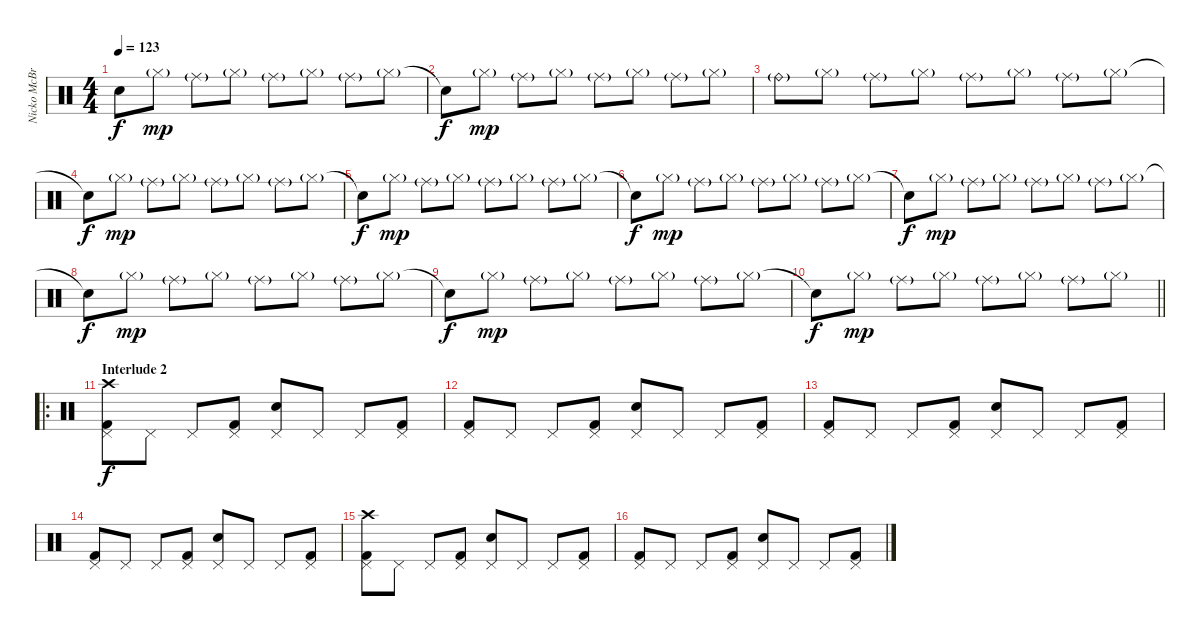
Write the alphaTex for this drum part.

\track ("Nicko McBrain" "Nicko McBr") {instrument percussion}
\staff {score}
\articulation defaults
\ts (4 4)
\tempo 123
\clef neutral
\ks c "Snare (hit)"{t}.8{dy f} "Hi-Hat (closed)"{g}.8{dy mp} "Ride (middle)"{g}.8 "Hi-Hat (closed)"{g}.8 "Ride (middle)"{g}.8 "Hi-Hat (closed)"{g}.8 "Ride (middle)"{g}.8 "Hi-Hat (closed)"{g}.8
|
"Snare (hit)"{t}.8{dy f} "Hi-Hat (closed)"{g}.8{dy mp} "Ride (middle)"{g}.8 "Hi-Hat (closed)"{g}.8 "Ride (middle)"{g}.8 "Hi-Hat (closed)"{g}.8 "Ride (middle)"{g}.8 "Hi-Hat (closed)"{g}.8 |
"Ride (bell)"{g}.8 "Hi-Hat (closed)"{g}.8 "Ride (middle)"{g}.8 "Hi-Hat (closed)"{g}.8 "Ride (middle)"{g}.8 "Hi-Hat (closed)"{g}.8 "Ride (middle)"{g}.8 "Hi-Hat (closed)"{g}.8 |
"Snare (hit)"{t}.8{dy f} "Hi-Hat (closed)"{g}.8{dy mp} "Ride (middle)"{g}.8 "Hi-Hat (closed)"{g}.8 "Ride (middle)"{g}.8 "Hi-Hat (closed)"{g}.8 "Ride (middle)"{g}.8 "Hi-Hat (closed)"{g}.8 |
"Snare (hit)"{t}.8{dy f} "Hi-Hat (closed)"{g}.8{dy mp} "Ride (middle)"{g}.8 "Hi-Hat (closed)"{g}.8 "Ride (middle)"{g}.8 "Hi-Hat (closed)"{g}.8 "Ride (middle)"{g}.8 "Hi-Hat (closed)"{g}.8 |
"Snare (hit)"{t}.8{dy f} "Hi-Hat (closed)"{g}.8{dy mp} "Ride (middle)"{g}.8 "Hi-Hat (closed)"{g}.8 "Ride (middle)"{g}.8 "Hi-Hat (closed)"{g}.8 "Ride (middle)"{g}.8 "Hi-Hat (closed)"{g}.8 |
"Snare (hit)"{t}.8{dy f} "Hi-Hat (closed)"{g}.8{dy mp} "Ride (middle)"{g}.8 "Hi-Hat (closed)"{g}.8 "Ride (middle)"{g}.8 "Hi-Hat (closed)"{g}.8 "Ride (middle)"{g}.8 "Hi-Hat (closed)"{g}.8 |
"Snare (hit)"{t}.8{dy f} "Hi-Hat (closed)"{g}.8{dy mp} "Ride (middle)"{g}.8 "Hi-Hat (closed)"{g}.8 "Ride (middle)"{g}.8 "Hi-Hat (closed)"{g}.8 "Ride (middle)"{g}.8 "Hi-Hat (closed)"{g}.8 |
"Snare (hit)"{t}.8{dy f} "Hi-Hat (closed)"{g}.8{dy mp} "Ride (middle)"{g}.8 "Hi-Hat (closed)"{g}.8 "Ride (middle)"{g}.8 "Hi-Hat (closed)"{g}.8 "Ride (middle)"{g}.8 "Hi-Hat (closed)"{g}.8 |
\barLineRight lightlight "Snare (hit)"{t}.8{dy f} "Hi-Hat (closed)"{g}.8{dy mp} "Ride (middle)"{g}.8 "Hi-Hat (closed)"{g}.8 "Ride (middle)"{g}.8 "Hi-Hat (closed)"{g}.8 "Ride (middle)"{g}.8 "Hi-Hat (closed)"{g}.8
|
\ro
\section ("" "Interlude 2")
("Kick (hit) 2" "Pedal Hi-Hat (hit)" "Crash high (hit)").8{dy f} "Pedal Hi-Hat (hit)".8 "Pedal Hi-Hat (hit)".8 ("Kick (hit) 2" "Pedal Hi-Hat (hit)").8 ("Snare (hit) 2" "Pedal Hi-Hat (hit)").8 "Pedal Hi-Hat (hit)".8 "Pedal Hi-Hat (hit)".8 ("Kick (hit) 2" "Pedal Hi-Hat (hit)").8 |
("Kick (hit) 2" "Pedal Hi-Hat (hit)").8 "Pedal Hi-Hat (hit)".8 "Pedal Hi-Hat (hit)".8 ("Kick (hit) 2" "Pedal Hi-Hat (hit)").8 ("Snare (hit) 2" "Pedal Hi-Hat (hit)").8 "Pedal Hi-Hat (hit)".8 "Pedal Hi-Hat (hit)".8 ("Kick (hit) 2" "Pedal Hi-Hat (hit)").8 |
("Kick (hit) 2" "Pedal Hi-Hat (hit)").8 "Pedal Hi-Hat (hit)".8 "Pedal Hi-Hat (hit)".8 ("Kick (hit) 2" "Pedal Hi-Hat (hit)").8 ("Snare (hit) 2" "Pedal Hi-Hat (hit)").8 "Pedal Hi-Hat (hit)".8 "Pedal Hi-Hat (hit)".8 ("Kick (hit) 2" "Pedal Hi-Hat (hit)").8 |
("Kick (hit) 2" "Pedal Hi-Hat (hit)").8 "Pedal Hi-Hat (hit)".8 "Pedal Hi-Hat (hit)".8 ("Kick (hit) 2" "Pedal Hi-Hat (hit)").8 ("Snare (hit) 2" "Pedal Hi-Hat (hit)").8 "Pedal Hi-Hat (hit)".8 "Pedal Hi-Hat (hit)".8 ("Kick (hit) 2" "Pedal Hi-Hat (hit)").8 |
("Kick (hit) 2" "Pedal Hi-Hat (hit)" "Crash high (hit)").8 "Pedal Hi-Hat (hit)".8 "Pedal Hi-Hat (hit)".8 ("Kick (hit) 2" "Pedal Hi-Hat (hit)").8 ("Snare (hit) 2" "Pedal Hi-Hat (hit)").8 "Pedal Hi-Hat (hit)".8 "Pedal Hi-Hat (hit)".8 ("Kick (hit) 2" "Pedal Hi-Hat (hit)").8 |
("Kick (hit) 2" "Pedal Hi-Hat (hit)").8 "Pedal Hi-Hat (hit)".8 "Pedal Hi-Hat (hit)".8 ("Kick (hit) 2" "Pedal Hi-Hat (hit)").8 ("Snare (hit) 2" "Pedal Hi-Hat (hit)").8 "Pedal Hi-Hat (hit)".8 "Pedal Hi-Hat (hit)".8 ("Kick (hit) 2" "Pedal Hi-Hat (hit)").8
